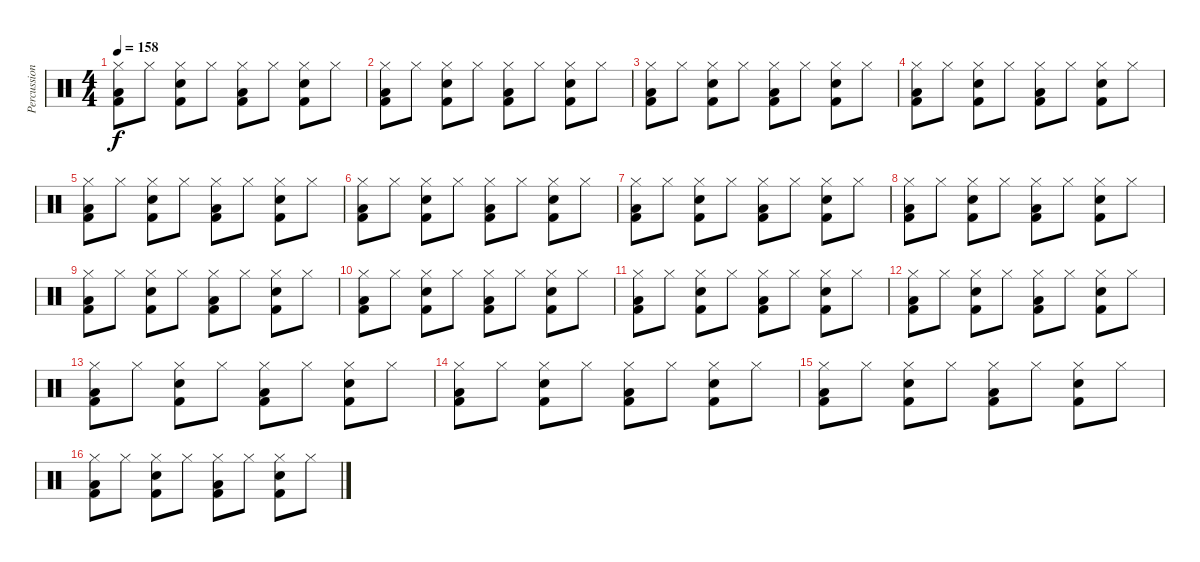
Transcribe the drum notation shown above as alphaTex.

\track ("Percussions" "Percussion") {instrument percussion}
\staff {score}
\articulation defaults
\ts (4 4)
\tempo 158
\clef neutral
\ks c
("Hi-Hat (closed)" "Low Floor Tom (hit)" "Kick (hit) 2").8{dy f} "Hi-Hat (closed)".8 ("Hi-Hat (closed)" "Snare (hit) 2" "Kick (hit) 2").8 "Hi-Hat (closed)".8 ("Hi-Hat (closed)" "Low Floor Tom (hit)" "Kick (hit) 2").8 "Hi-Hat (closed)".8 ("Hi-Hat (closed)" "Snare (hit) 2" "Kick (hit) 2").8 "Hi-Hat (closed)".8 |
("Hi-Hat (closed)" "Low Floor Tom (hit)" "Kick (hit) 2").8 "Hi-Hat (closed)".8 ("Hi-Hat (closed)" "Snare (hit) 2" "Kick (hit) 2").8 "Hi-Hat (closed)".8 ("Hi-Hat (closed)" "Low Floor Tom (hit)" "Kick (hit) 2").8 "Hi-Hat (closed)".8 ("Hi-Hat (closed)" "Snare (hit) 2" "Kick (hit) 2").8 "Hi-Hat (closed)".8 |
("Hi-Hat (closed)" "Low Floor Tom (hit)" "Kick (hit) 2").8 "Hi-Hat (closed)".8 ("Hi-Hat (closed)" "Snare (hit) 2" "Kick (hit) 2").8 "Hi-Hat (closed)".8 ("Hi-Hat (closed)" "Low Floor Tom (hit)" "Kick (hit) 2").8 "Hi-Hat (closed)".8 ("Hi-Hat (closed)" "Snare (hit) 2" "Kick (hit) 2").8 "Hi-Hat (closed)".8 |
("Hi-Hat (closed)" "Low Floor Tom (hit)" "Kick (hit) 2").8{volume 13} "Hi-Hat (closed)".8 ("Hi-Hat (closed)" "Snare (hit) 2" "Kick (hit) 2").8 "Hi-Hat (closed)".8 ("Hi-Hat (closed)" "Low Floor Tom (hit)" "Kick (hit) 2").8 "Hi-Hat (closed)".8 ("Hi-Hat (closed)" "Snare (hit) 2" "Kick (hit) 2").8 "Hi-Hat (closed)".8 |
("Hi-Hat (closed)" "Low Floor Tom (hit)" "Kick (hit) 2").8 "Hi-Hat (closed)".8 ("Hi-Hat (closed)" "Snare (hit) 2" "Kick (hit) 2").8 "Hi-Hat (closed)".8 ("Hi-Hat (closed)" "Low Floor Tom (hit)" "Kick (hit) 2").8 "Hi-Hat (closed)".8 ("Hi-Hat (closed)" "Snare (hit) 2" "Kick (hit) 2").8 "Hi-Hat (closed)".8 |
("Hi-Hat (closed)" "Low Floor Tom (hit)" "Kick (hit) 2").8 "Hi-Hat (closed)".8 ("Hi-Hat (closed)" "Snare (hit) 2" "Kick (hit) 2").8 "Hi-Hat (closed)".8 ("Hi-Hat (closed)" "Low Floor Tom (hit)" "Kick (hit) 2").8 "Hi-Hat (closed)".8 ("Hi-Hat (closed)" "Snare (hit) 2" "Kick (hit) 2").8 "Hi-Hat (closed)".8 |
("Hi-Hat (closed)" "Low Floor Tom (hit)" "Kick (hit) 2").8 "Hi-Hat (closed)".8 ("Hi-Hat (closed)" "Snare (hit) 2" "Kick (hit) 2").8 "Hi-Hat (closed)".8 ("Hi-Hat (closed)" "Low Floor Tom (hit)" "Kick (hit) 2").8 "Hi-Hat (closed)".8 ("Hi-Hat (closed)" "Snare (hit) 2" "Kick (hit) 2").8 "Hi-Hat (closed)".8 |
("Hi-Hat (closed)" "Low Floor Tom (hit)" "Kick (hit) 2").8 "Hi-Hat (closed)".8 ("Hi-Hat (closed)" "Snare (hit) 2" "Kick (hit) 2").8 "Hi-Hat (closed)".8 ("Hi-Hat (closed)" "Low Floor Tom (hit)" "Kick (hit) 2").8 "Hi-Hat (closed)".8 ("Hi-Hat (closed)" "Snare (hit) 2" "Kick (hit) 2").8 "Hi-Hat (closed)".8 |
("Hi-Hat (closed)" "Low Floor Tom (hit)" "Kick (hit) 2").8 "Hi-Hat (closed)".8 ("Hi-Hat (closed)" "Snare (hit) 2" "Kick (hit) 2").8 "Hi-Hat (closed)".8 ("Hi-Hat (closed)" "Low Floor Tom (hit)" "Kick (hit) 2").8 "Hi-Hat (closed)".8 ("Hi-Hat (closed)" "Snare (hit) 2" "Kick (hit) 2").8 "Hi-Hat (closed)".8 |
("Hi-Hat (closed)" "Low Floor Tom (hit)" "Kick (hit) 2").8 "Hi-Hat (closed)".8 ("Hi-Hat (closed)" "Snare (hit) 2" "Kick (hit) 2").8 "Hi-Hat (closed)".8 ("Hi-Hat (closed)" "Low Floor Tom (hit)" "Kick (hit) 2").8 "Hi-Hat (closed)".8 ("Hi-Hat (closed)" "Snare (hit) 2" "Kick (hit) 2").8 "Hi-Hat (closed)".8 |
("Hi-Hat (closed)" "Low Floor Tom (hit)" "Kick (hit) 2").8 "Hi-Hat (closed)".8 ("Hi-Hat (closed)" "Snare (hit) 2" "Kick (hit) 2").8 "Hi-Hat (closed)".8 ("Hi-Hat (closed)" "Low Floor Tom (hit)" "Kick (hit) 2").8 "Hi-Hat (closed)".8 ("Hi-Hat (closed)" "Snare (hit) 2" "Kick (hit) 2").8 "Hi-Hat (closed)".8 |
("Hi-Hat (closed)" "Low Floor Tom (hit)" "Kick (hit) 2").8 "Hi-Hat (closed)".8 ("Hi-Hat (closed)" "Snare (hit) 2" "Kick (hit) 2").8 "Hi-Hat (closed)".8 ("Hi-Hat (closed)" "Low Floor Tom (hit)" "Kick (hit) 2").8 "Hi-Hat (closed)".8 ("Hi-Hat (closed)" "Snare (hit) 2" "Kick (hit) 2").8 "Hi-Hat (closed)".8 |
("Hi-Hat (closed)" "Low Floor Tom (hit)" "Kick (hit) 2").8 "Hi-Hat (closed)".8 ("Hi-Hat (closed)" "Snare (hit) 2" "Kick (hit) 2").8 "Hi-Hat (closed)".8 ("Hi-Hat (closed)" "Low Floor Tom (hit)" "Kick (hit) 2").8 "Hi-Hat (closed)".8 ("Hi-Hat (closed)" "Snare (hit) 2" "Kick (hit) 2").8 "Hi-Hat (closed)".8 |
("Hi-Hat (closed)" "Low Floor Tom (hit)" "Kick (hit) 2").8 "Hi-Hat (closed)".8 ("Hi-Hat (closed)" "Snare (hit) 2" "Kick (hit) 2").8 "Hi-Hat (closed)".8 ("Hi-Hat (closed)" "Low Floor Tom (hit)" "Kick (hit) 2").8 "Hi-Hat (closed)".8 ("Hi-Hat (closed)" "Snare (hit) 2" "Kick (hit) 2").8 "Hi-Hat (closed)".8 |
("Hi-Hat (closed)" "Low Floor Tom (hit)" "Kick (hit) 2").8 "Hi-Hat (closed)".8 ("Hi-Hat (closed)" "Snare (hit) 2" "Kick (hit) 2").8 "Hi-Hat (closed)".8 ("Hi-Hat (closed)" "Low Floor Tom (hit)" "Kick (hit) 2").8 "Hi-Hat (closed)".8 ("Hi-Hat (closed)" "Snare (hit) 2" "Kick (hit) 2").8 "Hi-Hat (closed)".8 |
("Hi-Hat (closed)" "Low Floor Tom (hit)" "Kick (hit) 2").8 "Hi-Hat (closed)".8 ("Hi-Hat (closed)" "Snare (hit) 2" "Kick (hit) 2").8 "Hi-Hat (closed)".8 ("Hi-Hat (closed)" "Low Floor Tom (hit)" "Kick (hit) 2").8 "Hi-Hat (closed)".8 ("Hi-Hat (closed)" "Snare (hit) 2" "Kick (hit) 2").8 "Hi-Hat (closed)".8
